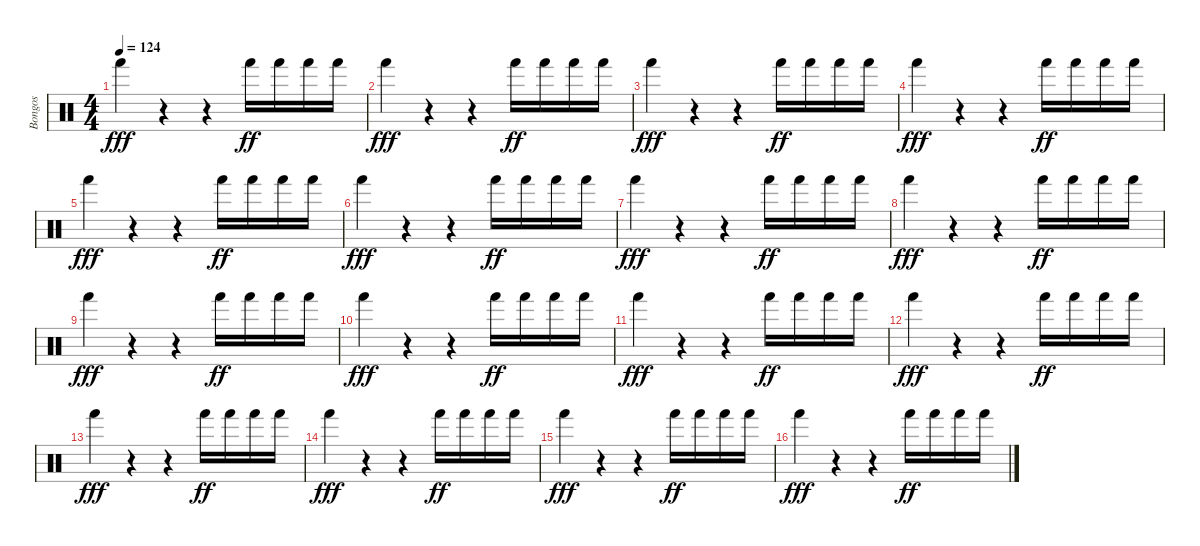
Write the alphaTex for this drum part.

\track ("Bongos" "Bongos") {instrument percussion}
\staff {score}
\articulation defaults
\ts (4 4)
\tempo 124
\clef neutral
\ks c "Hand (hit)".4{dy fff}
r.4 r.4 "Hand (hit)".16{dy ff} "Hand (hit)".16 "Hand (hit)".16 "Hand (hit)".16 |
"Hand (hit)".4{dy fff} r.4 r.4 "Hand (hit)".16{dy ff} "Hand (hit)".16 "Hand (hit)".16 "Hand (hit)".16 |
"Hand (hit)".4{dy fff} r.4 r.4 "Hand (hit)".16{dy ff} "Hand (hit)".16 "Hand (hit)".16 "Hand (hit)".16 |
"Hand (hit)".4{dy fff} r.4 r.4 "Hand (hit)".16{dy ff} "Hand (hit)".16 "Hand (hit)".16 "Hand (hit)".16 |
"Hand (hit)".4{dy fff} r.4 r.4 "Hand (hit)".16{dy ff} "Hand (hit)".16 "Hand (hit)".16 "Hand (hit)".16 |
"Hand (hit)".4{dy fff} r.4 r.4 "Hand (hit)".16{dy ff} "Hand (hit)".16 "Hand (hit)".16 "Hand (hit)".16 |
"Hand (hit)".4{dy fff} r.4 r.4 "Hand (hit)".16{dy ff} "Hand (hit)".16 "Hand (hit)".16 "Hand (hit)".16 |
"Hand (hit)".4{dy fff} r.4 r.4 "Hand (hit)".16{dy ff} "Hand (hit)".16 "Hand (hit)".16 "Hand (hit)".16 |
"Hand (hit)".4{dy fff} r.4 r.4 "Hand (hit)".16{dy ff} "Hand (hit)".16 "Hand (hit)".16 "Hand (hit)".16 |
"Hand (hit)".4{dy fff} r.4 r.4 "Hand (hit)".16{dy ff} "Hand (hit)".16 "Hand (hit)".16 "Hand (hit)".16 |
"Hand (hit)".4{dy fff} r.4 r.4 "Hand (hit)".16{dy ff} "Hand (hit)".16 "Hand (hit)".16 "Hand (hit)".16 |
"Hand (hit)".4{dy fff} r.4 r.4 "Hand (hit)".16{dy ff} "Hand (hit)".16 "Hand (hit)".16 "Hand (hit)".16 |
"Hand (hit)".4{dy fff} r.4 r.4 "Hand (hit)".16{dy ff} "Hand (hit)".16 "Hand (hit)".16 "Hand (hit)".16 |
"Hand (hit)".4{dy fff} r.4 r.4 "Hand (hit)".16{dy ff} "Hand (hit)".16 "Hand (hit)".16 "Hand (hit)".16 |
"Hand (hit)".4{dy fff} r.4 r.4 "Hand (hit)".16{dy ff} "Hand (hit)".16 "Hand (hit)".16 "Hand (hit)".16 |
"Hand (hit)".4{dy fff} r.4 r.4 "Hand (hit)".16{dy ff} "Hand (hit)".16 "Hand (hit)".16 "Hand (hit)".16
